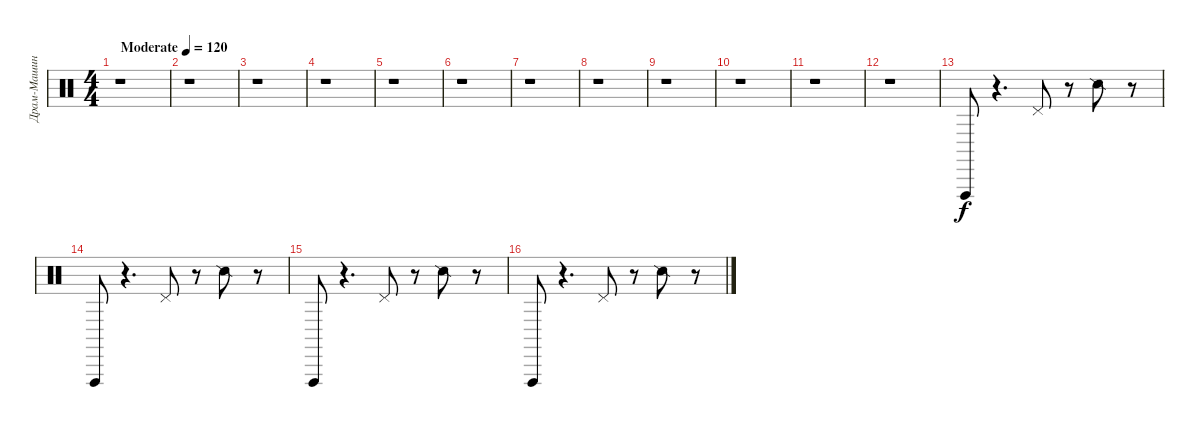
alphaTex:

\track ("Драм-Машина" "Драм-Машин") {instrument percussion}
\staff {score}
\articulation defaults
\ts (4 4)
\tempo (120 "Moderate")
\clef neutral
\ks c
r.1{dy f} |
r.1 |
r.1 |
r.1 |
r.1 |
r.1 |
r.1 |
r.1 |
r.1 |
r.1 |
r.1 |
r.1 |
"Vibraslap (hit)".8 r.4{d} "Pedal Hi-Hat (hit)".8 r.8 "Snare (side stick) 2".8 r.8 |
"Vibraslap (hit)".8 r.4{d} "Pedal Hi-Hat (hit)".8 r.8 "Snare (side stick) 2".8 r.8 |
"Vibraslap (hit)".8 r.4{d} "Pedal Hi-Hat (hit)".8 r.8 "Snare (side stick) 2".8 r.8 |
"Vibraslap (hit)".8 r.4{d} "Pedal Hi-Hat (hit)".8 r.8 "Snare (side stick) 2".8 r.8
